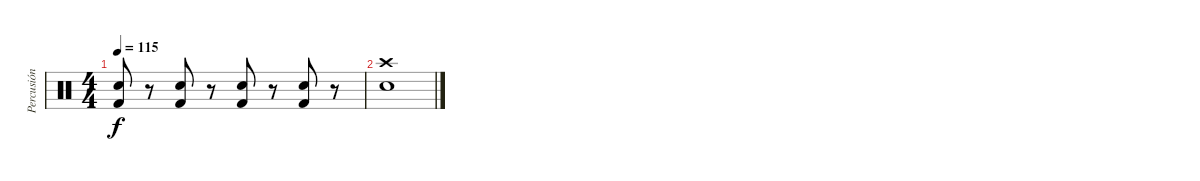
\track ("Percusión" "Percusión") {instrument percussion}
\staff {score}
\articulation defaults
\ts (4 4)
\tempo 115
\clef neutral
\ks c
("Snare (hit) 2" "Kick (hit) 2").8{dy f} r.8 ("Snare (hit) 2" "Kick (hit) 2").8 r.8 ("Snare (hit) 2" "Kick (hit) 2").8 r.8 ("Snare (hit) 2" "Kick (hit) 2").8 r.8 |
("Crash high (hit)" "Snare (hit) 2").1
